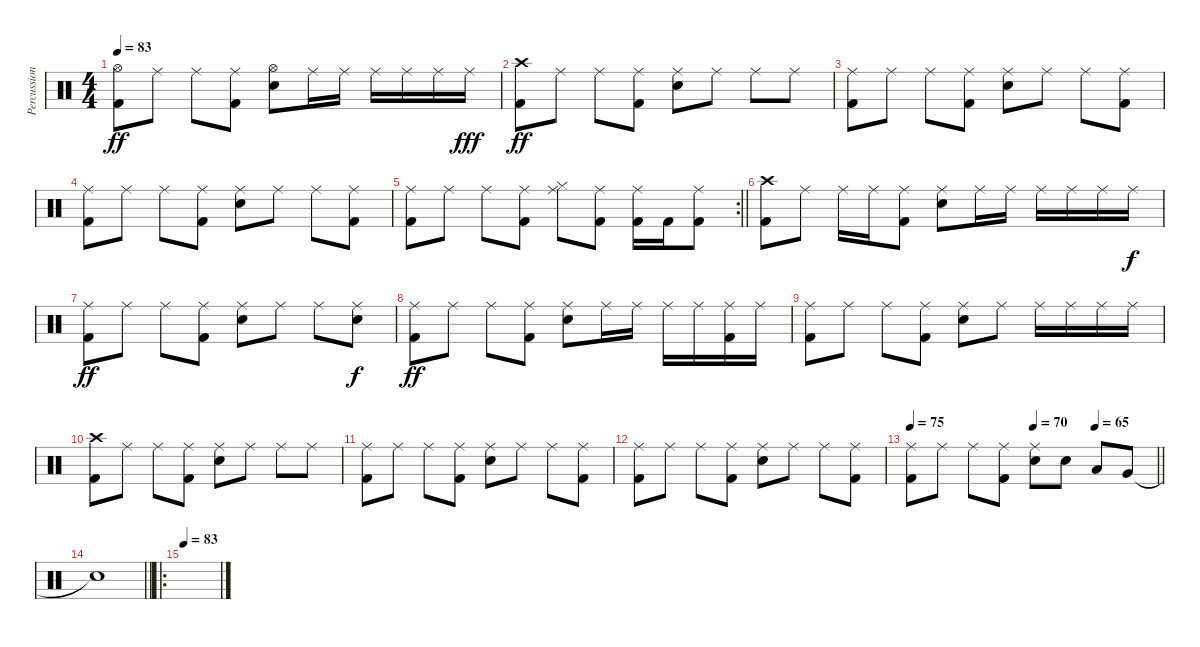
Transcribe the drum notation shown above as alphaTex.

\track ("Percussions" "Percussion") {instrument percussion}
\staff {score}
\articulation defaults
\ts (4 4)
\tempo 83
\clef neutral
\ks c
("Hi-Hat (open)" "Kick (hit) 2").8{dy ff} "Ride (middle)".8 "Ride (middle)".8 ("Ride (middle)" "Kick (hit) 2").8 ("Electric Snare (hit)" "Hi-Hat (open)").8 "Ride (middle)".16 "Ride (middle)".16 "Ride (middle)".16 "Ride (middle)".16 "Ride (middle)".16 "Ride (middle)".16{dy fff} |
("Crash high (hit)" "Kick (hit) 2").8{dy ff} "Ride (middle)".8 "Ride (middle)".8 ("Ride (middle)" "Kick (hit) 2").8 ("Ride (middle)" "Electric Snare (hit)").8 "Ride (middle)".8 "Ride (middle)".8 "Ride (middle)".8 |
("Ride (middle)" "Kick (hit) 2").8 "Ride (middle)".8 "Ride (middle)".8 ("Ride (middle)" "Kick (hit) 2").8 ("Ride (middle)" "Electric Snare (hit)").8 "Ride (middle)".8 "Ride (middle)".8 ("Ride (middle)" "Kick (hit) 2").8 |
("Ride (middle)" "Kick (hit) 2").8 "Ride (middle)".8 "Ride (middle)".8 ("Ride (middle)" "Kick (hit) 2").8 ("Ride (middle)" "Electric Snare (hit)").8 "Ride (middle)".8 "Ride (middle)".8 ("Ride (middle)" "Kick (hit) 2").8 |
\rc 2
\barLineRight lightlight
("Ride (middle)" "Kick (hit) 2").8 "Ride (middle)".8 "Ride (middle)".8 ("Ride (middle)" "Kick (hit) 2").8 ("Ride (middle)" "Hi-Hat (closed)").8 ("Ride (middle)" "Kick (hit) 2").8 ("Ride (middle)" "Kick (hit) 2").16 "Kick (hit) 2".16 ("Ride (middle)" "Kick (hit) 2").8 |
("Crash high (hit)" "Kick (hit) 2").8 "Ride (middle)".8 "Ride (middle)".16 "Ride (middle)".16 ("Ride (middle)" "Kick (hit) 2").8 ("Ride (middle)" "Electric Snare (hit)").8 "Ride (middle)".16 "Ride (middle)".16 "Ride (middle)".16 "Ride (middle)".16 "Ride (middle)".16 "Ride (middle)".16{dy f} |
("Ride (middle)" "Kick (hit) 2").8{dy ff} "Ride (middle)".8 "Ride (middle)".8 ("Ride (middle)" "Kick (hit) 2").8 ("Ride (middle)" "Electric Snare (hit)").8 "Ride (middle)".8 "Ride (middle)".8 ("Ride (middle)" "Electric Snare (hit)").8{dy f} |
("Ride (middle)" "Kick (hit) 2").8{dy ff} "Ride (middle)".8 "Ride (middle)".8 ("Ride (middle)" "Kick (hit) 2").8 ("Ride (middle)" "Electric Snare (hit)").8 "Ride (middle)".16 "Ride (middle)".16 "Ride (middle)".16 "Ride (middle)".16 ("Ride (middle)" "Kick (hit) 2").16 "Ride (middle)".16 |
("Ride (middle)" "Kick (hit) 2").8 "Ride (middle)".8 "Ride (middle)".8 ("Ride (middle)" "Kick (hit) 2").8 ("Electric Snare (hit)" "Ride (middle)").8 "Ride (middle)".8 "Ride (middle)".16 "Ride (middle)".16 "Ride (middle)".16 "Ride (middle)".16 |
("Crash high (hit)" "Kick (hit) 2").8 "Ride (middle)".8 "Ride (middle)".8 ("Ride (middle)" "Kick (hit) 2").8 ("Ride (middle)" "Electric Snare (hit)").8 "Ride (middle)".8 "Ride (middle)".8 "Ride (middle)".8 |
("Ride (middle)" "Kick (hit) 2").8 "Ride (middle)".8 "Ride (middle)".8 ("Ride (middle)" "Kick (hit) 2").8 ("Ride (middle)" "Electric Snare (hit)").8 "Ride (middle)".8 "Ride (middle)".8 ("Ride (middle)" "Kick (hit) 2").8 |
("Ride (middle)" "Kick (hit) 2").8 "Ride (middle)".8 "Ride (middle)".8 ("Ride (middle)" "Kick (hit) 2").8 ("Ride (middle)" "Electric Snare (hit)").8 "Ride (middle)".8 "Ride (middle)".8 ("Ride (middle)" "Kick (hit) 2").8 |
\tempo 75
\tempo (70 0.5)
\tempo (65 0.75)
\barLineRight lightlight
("Ride (middle)" "Kick (hit) 2").8 "Ride (middle)".8 "Ride (middle)".8 ("Ride (middle)" "Kick (hit) 2").8 ("Electric Snare (hit)" "Ride (middle)").8 "Electric Snare (hit)".8 "Low Tom (hit)".8 "Very Low Tom (hit)".8 |
\barLineRight lightlight "Snare (hit)"{t}.1
|
\ro
\tempo 83
